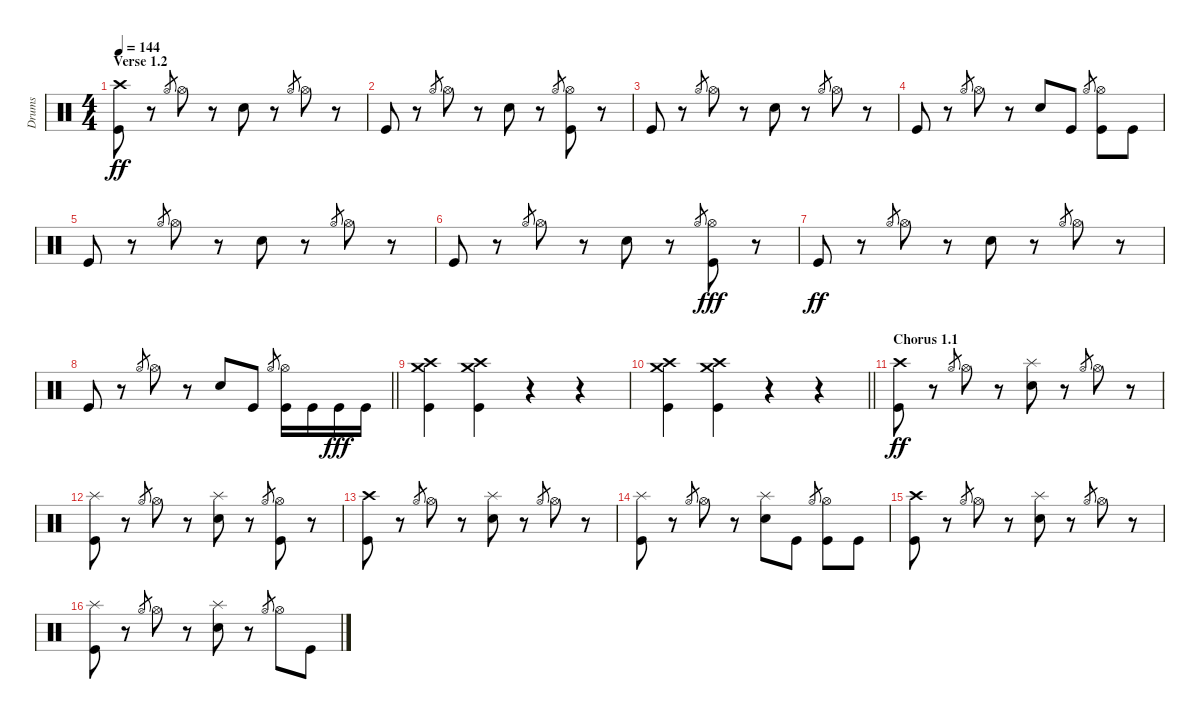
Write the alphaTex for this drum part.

\track ("Drums" "Drums") {instrument percussion}
\staff {score}
\articulation defaults
\ts (4 4)
\section ("" "Verse 1.2")
\tempo 144
\clef neutral
\ks c
("Crash high (hit)" "Kick (hit)").8{dy ff} r.8 "Hi-Hat (open)".8{gr} "Hi-Hat (open)".8 r.8 "Snare (hit) 2".8 r.8 "Hi-Hat (open)".8{gr} "Hi-Hat (open)".8 r.8 |
"Kick (hit)".8 r.8 "Hi-Hat (open)".8{gr} "Hi-Hat (open)".8 r.8 "Snare (hit) 2".8 r.8 "Hi-Hat (open)".8{gr} ("Hi-Hat (open)" "Kick (hit)").8 r.8 |
"Kick (hit)".8 r.8 "Hi-Hat (open)".8{gr} "Hi-Hat (open)".8 r.8 "Snare (hit) 2".8 r.8 "Hi-Hat (open)".8{gr} "Hi-Hat (open)".8 r.8 |
"Kick (hit)".8 r.8 "Hi-Hat (open)".8{gr} "Hi-Hat (open)".8 r.8 "Snare (hit) 2".8 "Kick (hit)".8 "Hi-Hat (open)".8{gr} ("Hi-Hat (open)" "Kick (hit)").8 "Kick (hit)".8 |
"Kick (hit)".8 r.8 "Hi-Hat (open)".8{gr} "Hi-Hat (open)".8 r.8 "Snare (hit) 2".8 r.8 "Hi-Hat (open)".8{gr} "Hi-Hat (open)".8 r.8 |
"Kick (hit)".8 r.8 "Hi-Hat (open)".8{gr} "Hi-Hat (open)".8 r.8 "Snare (hit) 2".8 r.8 "Hi-Hat (open)".8{gr} ("Hi-Hat (open)" "Kick (hit)").8{dy fff} r.8 |
"Kick (hit)".8{dy ff} r.8 "Hi-Hat (open)".8{gr} "Hi-Hat (open)".8 r.8 "Snare (hit) 2".8 r.8 "Hi-Hat (open)".8{gr} "Hi-Hat (open)".8 r.8 |
\barLineRight lightlight "Kick (hit)".8
r.8 "Hi-Hat (open)".8{gr} "Hi-Hat (open)".8 r.8 "Snare (hit) 2".8 "Kick (hit)".8 "Hi-Hat (open)".8{gr} ("Hi-Hat (open)" "Kick (hit)").16 "Kick (hit)".16 "Kick (hit)".16{dy fff} "Kick (hit)".16 |
("Crash high (hit)" "Crash medium (hit)" "Kick (hit)").4 ("Crash high (hit)" "Crash medium (hit)" "Kick (hit)").4 r.4{volume 0} r.4 |
\barLineRight lightlight
("Crash high (hit)" "Crash medium (hit)" "Kick (hit)").4{volume 16} ("Crash high (hit)" "Crash medium (hit)" "Kick (hit)").4 r.4{volume 0} r.4 |
\section ("" "Chorus 1.1")
("Crash high (hit)" "Kick (hit)").8{dy ff volume 16} r.8 "Hi-Hat (open)".8{gr} "Hi-Hat (open)".8 r.8 ("Splash (hit)" "Snare (hit) 2").8 r.8 "Hi-Hat (open)".8{gr} "Hi-Hat (open)".8 r.8 |
("Splash (hit)" "Kick (hit)").8 r.8 "Hi-Hat (open)".8{gr} "Hi-Hat (open)".8 r.8 ("Splash (hit)" "Snare (hit) 2").8 r.8 "Hi-Hat (open)".8{gr} ("Hi-Hat (open)" "Kick (hit)").8 r.8 |
("Crash high (hit)" "Kick (hit)").8 r.8 "Hi-Hat (open)".8{gr} "Hi-Hat (open)".8 r.8 ("Splash (hit)" "Snare (hit) 2").8 r.8 "Hi-Hat (open)".8{gr} "Hi-Hat (open)".8 r.8 |
("Splash (hit)" "Kick (hit)").8 r.8 "Hi-Hat (open)".8{gr} "Hi-Hat (open)".8 r.8 ("Splash (hit)" "Snare (hit) 2").8 "Kick (hit)".8 "Hi-Hat (open)".8{gr} ("Hi-Hat (open)" "Kick (hit)").8 "Kick (hit)".8 |
("Crash high (hit)" "Kick (hit)").8 r.8 "Hi-Hat (open)".8{gr} "Hi-Hat (open)".8 r.8 ("Splash (hit)" "Snare (hit) 2").8 r.8 "Hi-Hat (open)".8{gr} "Hi-Hat (open)".8 r.8 |
("Splash (hit)" "Kick (hit)").8 r.8 "Hi-Hat (open)".8{gr} "Hi-Hat (open)".8 r.8 ("Splash (hit)" "Snare (hit) 2").8 r.8 "Hi-Hat (open)".8{gr} "Hi-Hat (open)".8 "Kick (hit)".8
